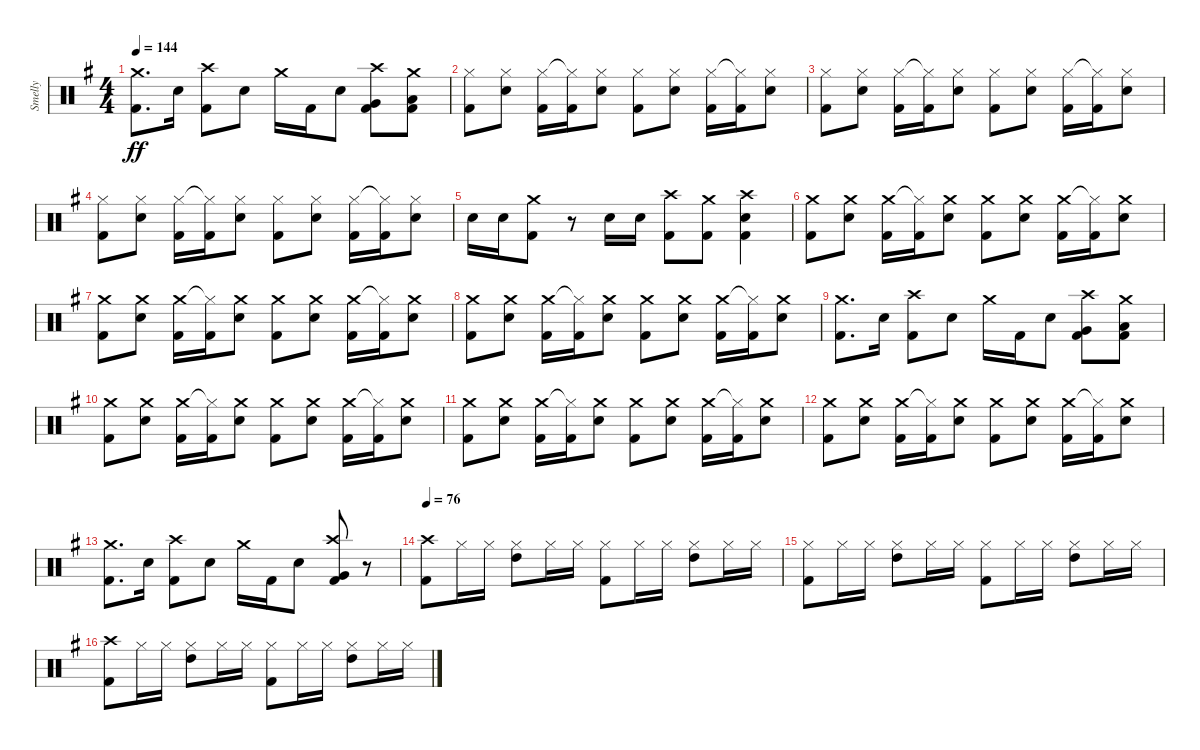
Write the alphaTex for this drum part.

\track ("Smelly" "Smelly") {instrument percussion}
\staff {score}
\articulation defaults
\ts (4 4)
\tempo 144
\clef neutral
\ks eminor
("Crash medium (hit)" "Kick (hit) 2").8{d dy ff} "Electric Snare (hit)".16 ("Crash high (hit)" "Kick (hit) 2").8 "Electric Snare (hit)".8 "Crash medium (hit)".16 "Kick (hit) 2".16 "Electric Snare (hit)".8 ("Crash high (hit)" "Very Low Tom (hit)" "Kick (hit) 2").8 ("Crash medium (hit)" "Low Floor Tom (hit)" "Kick (hit) 2").8 |
("Hi-Hat (closed)" "Kick (hit) 2").8 ("Hi-Hat (closed)" "Electric Snare (hit)").8 ("Hi-Hat (closed)" "Kick (hit) 2").16 ("Hi-Hat (closed)"{t} "Kick (hit) 2").16 ("Hi-Hat (closed)" "Electric Snare (hit)").8 ("Hi-Hat (closed)" "Kick (hit) 2").8 ("Hi-Hat (closed)" "Electric Snare (hit)").8 ("Hi-Hat (closed)" "Kick (hit) 2").16 ("Hi-Hat (closed)"{t} "Kick (hit) 2").16 ("Hi-Hat (closed)" "Electric Snare (hit)").8 |
("Hi-Hat (closed)" "Kick (hit) 2").8 ("Hi-Hat (closed)" "Electric Snare (hit)").8 ("Hi-Hat (closed)" "Kick (hit) 2").16 ("Hi-Hat (closed)"{t} "Kick (hit) 2").16 ("Hi-Hat (closed)" "Electric Snare (hit)").8 ("Hi-Hat (closed)" "Kick (hit) 2").8 ("Hi-Hat (closed)" "Electric Snare (hit)").8 ("Hi-Hat (closed)" "Kick (hit) 2").16 ("Hi-Hat (closed)"{t} "Kick (hit) 2").16 ("Hi-Hat (closed)" "Electric Snare (hit)").8 |
("Hi-Hat (closed)" "Kick (hit) 2").8 ("Hi-Hat (closed)" "Electric Snare (hit)").8 ("Hi-Hat (closed)" "Kick (hit) 2").16 ("Hi-Hat (closed)"{t} "Kick (hit) 2").16 ("Hi-Hat (closed)" "Electric Snare (hit)").8 ("Hi-Hat (closed)" "Kick (hit) 2").8 ("Hi-Hat (closed)" "Electric Snare (hit)").8 ("Hi-Hat (closed)" "Kick (hit) 2").16 ("Hi-Hat (closed)"{t} "Kick (hit) 2").16 ("Hi-Hat (closed)" "Electric Snare (hit)").8 |
"Electric Snare (hit)".16 "Electric Snare (hit)".16 ("Crash medium (hit)" "Kick (hit) 2").8 r.8 "Electric Snare (hit)".16 "Electric Snare (hit)".16 ("Crash high (hit)" "Kick (hit) 2").8 ("Crash medium (hit)" "Kick (hit) 2").8 ("Crash high (hit)" "Electric Snare (hit)" "Kick (hit) 2").4 |
("Crash medium (hit)" "Kick (hit) 2").8 ("Crash medium (hit)" "Electric Snare (hit)").8 ("Crash medium (hit)" "Kick (hit) 2").16 ("Hi-Hat (closed)"{t} "Kick (hit) 2").16 ("Crash medium (hit)" "Electric Snare (hit)").8 ("Crash medium (hit)" "Kick (hit) 2").8 ("Crash medium (hit)" "Electric Snare (hit)").8 ("Crash medium (hit)" "Kick (hit) 2").16 ("Hi-Hat (closed)"{t} "Kick (hit) 2").16 ("Crash medium (hit)" "Electric Snare (hit)").8 |
("Crash medium (hit)" "Kick (hit) 2").8 ("Crash medium (hit)" "Electric Snare (hit)").8 ("Crash medium (hit)" "Kick (hit) 2").16 ("Hi-Hat (closed)"{t} "Kick (hit) 2").16 ("Crash medium (hit)" "Electric Snare (hit)").8 ("Crash medium (hit)" "Kick (hit) 2").8 ("Crash medium (hit)" "Electric Snare (hit)").8 ("Crash medium (hit)" "Kick (hit) 2").16 ("Hi-Hat (closed)"{t} "Kick (hit) 2").16 ("Crash medium (hit)" "Electric Snare (hit)").8 |
("Crash medium (hit)" "Kick (hit) 2").8 ("Crash medium (hit)" "Electric Snare (hit)").8 ("Crash medium (hit)" "Kick (hit) 2").16 ("Hi-Hat (closed)"{t} "Kick (hit) 2").16 ("Crash medium (hit)" "Electric Snare (hit)").8 ("Crash medium (hit)" "Kick (hit) 2").8 ("Crash medium (hit)" "Electric Snare (hit)").8 ("Crash medium (hit)" "Kick (hit) 2").16 ("Hi-Hat (closed)"{t} "Kick (hit) 2").16 ("Crash medium (hit)" "Electric Snare (hit)").8 |
("Crash medium (hit)" "Kick (hit) 2").8{d} "Electric Snare (hit)".16 ("Crash high (hit)" "Kick (hit) 2").8 "Electric Snare (hit)".8 "Crash medium (hit)".16 "Kick (hit) 2".16 "Electric Snare (hit)".8 ("Crash high (hit)" "Very Low Tom (hit)" "Kick (hit) 2").8 ("Crash medium (hit)" "Low Floor Tom (hit)" "Kick (hit) 2").8 |
("Crash medium (hit)" "Kick (hit) 2").8 ("Crash medium (hit)" "Electric Snare (hit)").8 ("Crash medium (hit)" "Kick (hit) 2").16 ("Hi-Hat (closed)"{t} "Kick (hit) 2").16 ("Crash medium (hit)" "Electric Snare (hit)").8 ("Crash medium (hit)" "Kick (hit) 2").8 ("Crash medium (hit)" "Electric Snare (hit)").8 ("Crash medium (hit)" "Kick (hit) 2").16 ("Hi-Hat (closed)"{t} "Kick (hit) 2").16 ("Crash medium (hit)" "Electric Snare (hit)").8 |
("Crash medium (hit)" "Kick (hit) 2").8 ("Crash medium (hit)" "Electric Snare (hit)").8 ("Crash medium (hit)" "Kick (hit) 2").16 ("Hi-Hat (closed)"{t} "Kick (hit) 2").16 ("Crash medium (hit)" "Electric Snare (hit)").8 ("Crash medium (hit)" "Kick (hit) 2").8 ("Crash medium (hit)" "Electric Snare (hit)").8 ("Crash medium (hit)" "Kick (hit) 2").16 ("Hi-Hat (closed)"{t} "Kick (hit) 2").16 ("Crash medium (hit)" "Electric Snare (hit)").8 |
("Crash medium (hit)" "Kick (hit) 2").8 ("Crash medium (hit)" "Electric Snare (hit)").8 ("Crash medium (hit)" "Kick (hit) 2").16 ("Hi-Hat (closed)"{t} "Kick (hit) 2").16 ("Crash medium (hit)" "Electric Snare (hit)").8 ("Crash medium (hit)" "Kick (hit) 2").8 ("Crash medium (hit)" "Electric Snare (hit)").8 ("Crash medium (hit)" "Kick (hit) 2").16 ("Hi-Hat (closed)"{t} "Kick (hit) 2").16 ("Crash medium (hit)" "Electric Snare (hit)").8 |
("Crash medium (hit)" "Kick (hit) 2").8{d} "Electric Snare (hit)".16 ("Crash high (hit)" "Kick (hit) 2").8 "Electric Snare (hit)".8 "Crash medium (hit)".16 "Kick (hit) 2".16 "Electric Snare (hit)".8 ("Crash high (hit)" "Very Low Tom (hit)" "Kick (hit) 2").8 r.8{volume 0} |
\tempo 76
("Crash high (hit)" "Kick (hit) 2").8{volume 16} "Hi-Hat (closed)".16 "Hi-Hat (closed)".16 ("Hi-Hat (closed)" "High Tom (hit)").8 "Hi-Hat (closed)".16 "Hi-Hat (closed)".16 ("Hi-Hat (closed)" "Kick (hit) 2").8 "Hi-Hat (closed)".16 "Hi-Hat (closed)".16 ("Hi-Hat (closed)" "High Tom (hit)").8 "Hi-Hat (closed)".16 "Hi-Hat (closed)".16 |
("Hi-Hat (closed)" "Kick (hit) 2").8 "Hi-Hat (closed)".16 "Hi-Hat (closed)".16 ("Hi-Hat (closed)" "High Tom (hit)").8 "Hi-Hat (closed)".16 "Hi-Hat (closed)".16 ("Hi-Hat (closed)" "Kick (hit) 2").8 "Hi-Hat (closed)".16 "Hi-Hat (closed)".16 ("Hi-Hat (closed)" "High Tom (hit)").8 "Hi-Hat (closed)".16 "Hi-Hat (closed)".16 |
("Crash high (hit)" "Kick (hit) 2").8 "Hi-Hat (closed)".16 "Hi-Hat (closed)".16 ("Hi-Hat (closed)" "High Tom (hit)").8 "Hi-Hat (closed)".16 "Hi-Hat (closed)".16 ("Hi-Hat (closed)" "Kick (hit) 2").8 "Hi-Hat (closed)".16 "Hi-Hat (closed)".16 ("Hi-Hat (closed)" "High Tom (hit)").8 "Hi-Hat (closed)".16 "Hi-Hat (closed)".16
